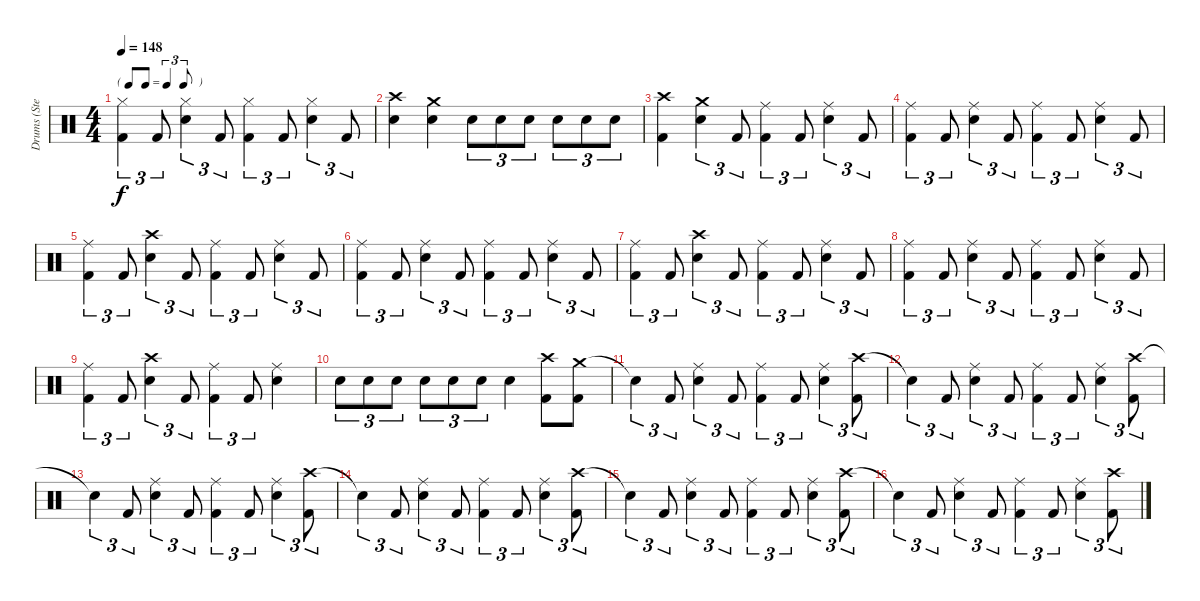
\track ("Drums (Steven)" "Drums (Ste") {instrument percussion}
\staff {score}
\articulation defaults
\ts (4 4)
\tf triplet8th
\tempo 148
\clef neutral
\ks c
("Hi-Hat (closed)" "Kick (hit) 2").4{tu (3 2) dy f} "Kick (hit) 2".8{tu (3 2)} ("Hi-Hat (closed)" "Snare (hit) 2").4{tu (3 2)} "Kick (hit) 2".8{tu (3 2)} ("Hi-Hat (closed)" "Kick (hit) 2").4{tu (3 2)} "Kick (hit) 2".8{tu (3 2)} ("Hi-Hat (closed)" "Snare (hit) 2").4{tu (3 2)} "Kick (hit) 2".8{tu (3 2)} |
("Crash high (hit)" "Snare (hit) 2").4 ("Crash medium (hit)" "Snare (hit) 2").4 "Snare (hit) 2".8{tu (3 2)} "Snare (hit) 2".8{tu (3 2)} "Snare (hit) 2".8{tu (3 2)} "Snare (hit) 2".8{tu (3 2)} "Snare (hit) 2".8{tu (3 2)} "Snare (hit) 2".8{tu (3 2)} |
("Crash high (hit)" "Kick (hit) 2").4 ("Crash medium (hit)" "Snare (hit) 2").4{tu (3 2)} "Kick (hit) 2".8{tu (3 2)} ("Ride (middle)" "Kick (hit) 2").4{tu (3 2)} "Kick (hit) 2".8{tu (3 2)} ("Ride (middle)" "Snare (hit) 2").4{tu (3 2)} "Kick (hit) 2".8{tu (3 2)} |
("Ride (middle)" "Kick (hit) 2").4{tu (3 2)} "Kick (hit) 2".8{tu (3 2)} ("Ride (middle)" "Snare (hit) 2").4{tu (3 2)} "Kick (hit) 2".8{tu (3 2)} ("Ride (middle)" "Kick (hit) 2").4{tu (3 2)} "Kick (hit) 2".8{tu (3 2)} ("Ride (middle)" "Snare (hit) 2").4{tu (3 2)} "Kick (hit) 2".8{tu (3 2)} |
("Ride (middle)" "Kick (hit) 2").4{tu (3 2)} "Kick (hit) 2".8{tu (3 2)} ("Crash high (hit)" "Snare (hit) 2").4{tu (3 2)} "Kick (hit) 2".8{tu (3 2)} ("Ride (middle)" "Kick (hit) 2").4{tu (3 2)} "Kick (hit) 2".8{tu (3 2)} ("Ride (middle)" "Snare (hit) 2").4{tu (3 2)} "Kick (hit) 2".8{tu (3 2)} |
("Ride (middle)" "Kick (hit) 2").4{tu (3 2)} "Kick (hit) 2".8{tu (3 2)} ("Ride (middle)" "Snare (hit) 2").4{tu (3 2)} "Kick (hit) 2".8{tu (3 2)} ("Ride (middle)" "Kick (hit) 2").4{tu (3 2)} "Kick (hit) 2".8{tu (3 2)} ("Ride (middle)" "Snare (hit) 2").4{tu (3 2)} "Kick (hit) 2".8{tu (3 2)} |
("Ride (middle)" "Kick (hit) 2").4{tu (3 2)} "Kick (hit) 2".8{tu (3 2)} ("Crash high (hit)" "Snare (hit) 2").4{tu (3 2)} "Kick (hit) 2".8{tu (3 2)} ("Ride (middle)" "Kick (hit) 2").4{tu (3 2)} "Kick (hit) 2".8{tu (3 2)} ("Ride (middle)" "Snare (hit) 2").4{tu (3 2)} "Kick (hit) 2".8{tu (3 2)} |
("Ride (middle)" "Kick (hit) 2").4{tu (3 2)} "Kick (hit) 2".8{tu (3 2)} ("Ride (middle)" "Snare (hit) 2").4{tu (3 2)} "Kick (hit) 2".8{tu (3 2)} ("Ride (middle)" "Kick (hit) 2").4{tu (3 2)} "Kick (hit) 2".8{tu (3 2)} ("Ride (middle)" "Snare (hit) 2").4{tu (3 2)} "Kick (hit) 2".8{tu (3 2)} |
("Ride (middle)" "Kick (hit) 2").4{tu (3 2)} "Kick (hit) 2".8{tu (3 2)} ("Crash high (hit)" "Snare (hit) 2").4{tu (3 2)} "Kick (hit) 2".8{tu (3 2)} ("Ride (middle)" "Kick (hit) 2").4{tu (3 2)} "Kick (hit) 2".8{tu (3 2)} ("Ride (middle)" "Snare (hit) 2").4 |
"Snare (hit) 2".8{tu (3 2)} "Snare (hit) 2".8{tu (3 2)} "Snare (hit) 2".8{tu (3 2)} "Snare (hit) 2".8{tu (3 2)} "Snare (hit) 2".8{tu (3 2)} "Snare (hit) 2".8{tu (3 2)} "Snare (hit) 2".4 ("Crash high (hit)" "Kick (hit) 2").8 ("Crash medium (hit)" "Kick (hit) 2").8 |
"Snare (hit)"{t}.4{tu (3 2)} "Kick (hit) 2".8{tu (3 2)} ("Ride (middle)" "Snare (hit) 2").4{tu (3 2)} "Kick (hit) 2".8{tu (3 2)} ("Ride (middle)" "Kick (hit) 2").4{tu (3 2)} "Kick (hit) 2".8{tu (3 2)} ("Ride (middle)" "Snare (hit) 2").4{tu (3 2)} ("Crash high (hit)" "Kick (hit) 2").8{tu (3 2)} |
"Snare (hit)"{t}.4{tu (3 2)} "Kick (hit) 2".8{tu (3 2)} ("Ride (middle)" "Snare (hit) 2").4{tu (3 2)} "Kick (hit) 2".8{tu (3 2)} ("Ride (middle)" "Kick (hit) 2").4{tu (3 2)} "Kick (hit) 2".8{tu (3 2)} ("Ride (middle)" "Snare (hit) 2").4{tu (3 2)} ("Crash high (hit)" "Kick (hit) 2").8{tu (3 2)} |
"Snare (hit)"{t}.4{tu (3 2)} "Kick (hit) 2".8{tu (3 2)} ("Ride (middle)" "Snare (hit) 2").4{tu (3 2)} "Kick (hit) 2".8{tu (3 2)} ("Ride (middle)" "Kick (hit) 2").4{tu (3 2)} "Kick (hit) 2".8{tu (3 2)} ("Ride (middle)" "Snare (hit) 2").4{tu (3 2)} ("Crash high (hit)" "Kick (hit) 2").8{tu (3 2)} |
"Snare (hit)"{t}.4{tu (3 2)} "Kick (hit) 2".8{tu (3 2)} ("Ride (middle)" "Snare (hit) 2").4{tu (3 2)} "Kick (hit) 2".8{tu (3 2)} ("Ride (middle)" "Kick (hit) 2").4{tu (3 2)} "Kick (hit) 2".8{tu (3 2)} ("Ride (middle)" "Snare (hit) 2").4{tu (3 2)} ("Crash high (hit)" "Kick (hit) 2").8{tu (3 2)} |
"Snare (hit)"{t}.4{tu (3 2)} "Kick (hit) 2".8{tu (3 2)} ("Ride (middle)" "Snare (hit) 2").4{tu (3 2)} "Kick (hit) 2".8{tu (3 2)} ("Ride (middle)" "Kick (hit) 2").4{tu (3 2)} "Kick (hit) 2".8{tu (3 2)} ("Ride (middle)" "Snare (hit) 2").4{tu (3 2)} ("Crash high (hit)" "Kick (hit) 2").8{tu (3 2)} |
"Snare (hit)"{t}.4{tu (3 2)} "Kick (hit) 2".8{tu (3 2)} ("Ride (middle)" "Snare (hit) 2").4{tu (3 2)} "Kick (hit) 2".8{tu (3 2)} ("Ride (middle)" "Kick (hit) 2").4{tu (3 2)} "Kick (hit) 2".8{tu (3 2)} ("Ride (middle)" "Snare (hit) 2").4{tu (3 2)} ("Crash high (hit)" "Kick (hit) 2").8{tu (3 2)}
